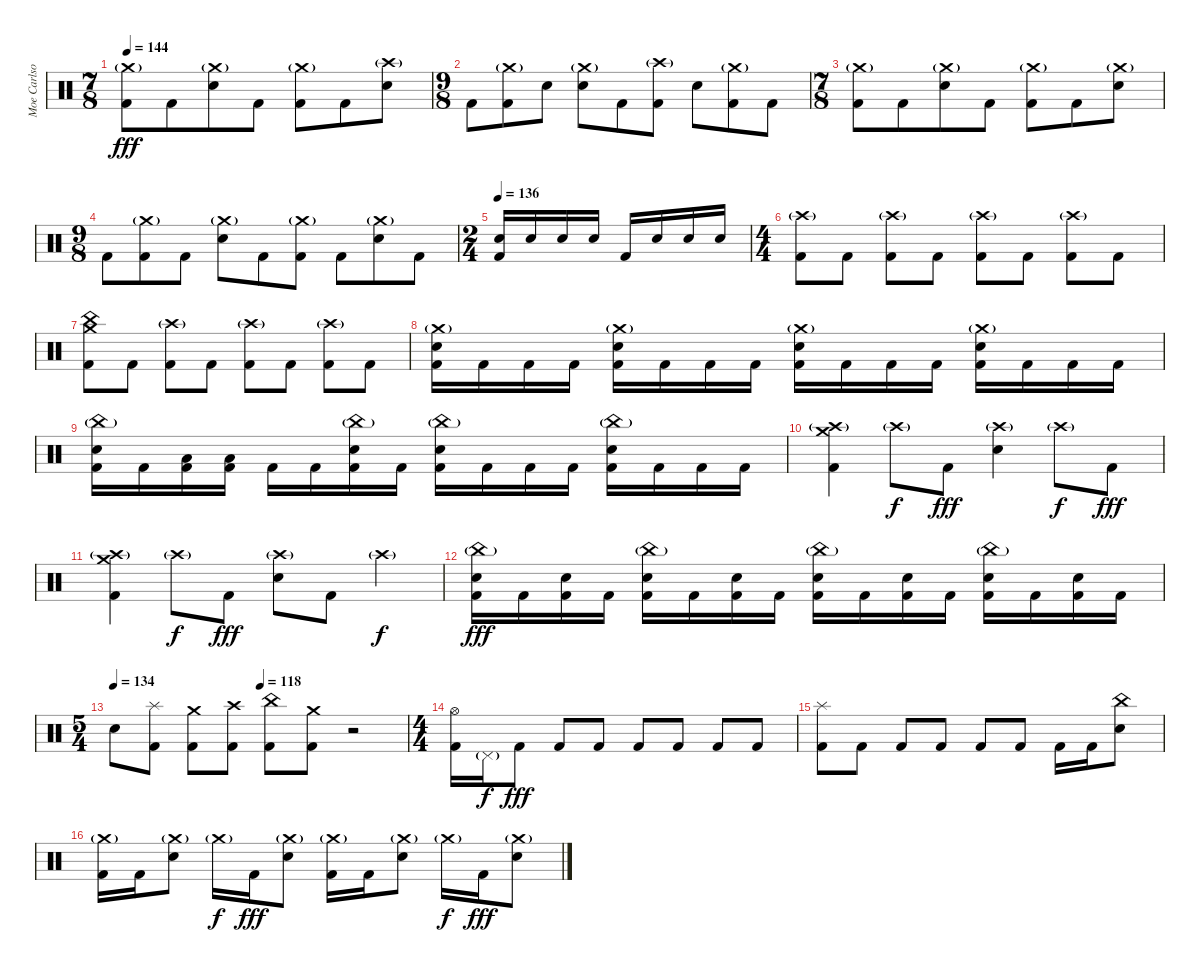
\track ("Moe Carlson" "Moe Carlso") {instrument percussion}
\staff {score}
\articulation defaults
\ts (7 8)
\tempo 144
\clef neutral
\ks c
("Crash medium (hit)"{g} "Kick (hit) 2").8{dy fff} "Kick (hit) 2".8 ("Crash medium (hit)"{g} "Electric Snare (hit)").8 "Kick (hit) 2".8 ("Crash medium (hit)"{g} "Kick (hit) 2").8 "Kick (hit) 2".8 ("Crash high (hit)"{g} "Electric Snare (hit)").8 |
\ts (9 8)
"Kick (hit) 2".8 ("Crash medium (hit)"{g} "Kick (hit) 2").8 "Electric Snare (hit)".8 ("Crash medium (hit)"{g} "Electric Snare (hit)").8 "Kick (hit) 2".8 ("Crash high (hit)"{g} "Kick (hit) 2").8 "Electric Snare (hit)".8 ("Crash medium (hit)"{g} "Kick (hit) 2").8 "Kick (hit) 2".8 |
\ts (7 8)
("Crash medium (hit)"{g} "Kick (hit) 2").8 "Kick (hit) 2".8 ("Crash medium (hit)"{g} "Electric Snare (hit)").8 "Kick (hit) 2".8 ("Crash medium (hit)"{g} "Kick (hit) 2").8 "Kick (hit) 2".8 ("Crash medium (hit)"{g} "Electric Snare (hit)").8 |
\ts (9 8)
"Kick (hit) 2".8 ("Crash medium (hit)"{g} "Kick (hit) 2").8 "Kick (hit) 2".8 ("Crash medium (hit)"{g} "Electric Snare (hit)").8 "Kick (hit) 2".8 ("Crash medium (hit)"{g} "Kick (hit) 2").8 "Kick (hit) 2".8 ("Crash medium (hit)"{g} "Electric Snare (hit)").8 "Kick (hit) 2".8 |
\ts (2 4)
\tempo 136
("Electric Snare (hit)" "Kick (hit) 2").16 "Electric Snare (hit)".16 "Electric Snare (hit)".16 "Electric Snare (hit)".16 "Kick (hit) 2".16 "Electric Snare (hit)".16 "Electric Snare (hit)".16 "Electric Snare (hit)".16 |
\ts (4 4)
("Crash high (hit)"{g} "Kick (hit) 2").8 "Kick (hit) 2".8 ("Crash high (hit)"{g} "Kick (hit) 2").8 "Kick (hit) 2".8 ("Crash high (hit)"{g} "Kick (hit) 2").8 "Kick (hit) 2".8 ("Crash high (hit)"{g} "Kick (hit) 2").8 "Kick (hit) 2".8 |
("Crash medium (hit)" "China (hit)" "Kick (hit) 2").8 "Kick (hit) 2".8 ("Crash high (hit)"{g} "Kick (hit) 2").8 "Kick (hit) 2".8 ("Crash high (hit)"{g} "Kick (hit) 2").8 "Kick (hit) 2".8 ("Crash high (hit)"{g} "Kick (hit) 2").8 "Kick (hit) 2".8 |
("Crash medium (hit)"{g} "Electric Snare (hit)" "Kick (hit) 2").16 "Kick (hit) 2".16 "Kick (hit) 2".16 "Kick (hit) 2".16 ("Crash medium (hit)"{g} "Electric Snare (hit)" "Kick (hit) 2").16 "Kick (hit) 2".16 "Kick (hit) 2".16 "Kick (hit) 2".16 ("Crash medium (hit)"{g} "Electric Snare (hit)" "Kick (hit) 2").16 "Kick (hit) 2".16 "Kick (hit) 2".16 "Kick (hit) 2".16 ("Crash medium (hit)"{g} "Electric Snare (hit)" "Kick (hit) 2").16 "Kick (hit) 2".16 "Kick (hit) 2".16 "Kick (hit) 2".16 |
("China (hit)"{g} "Electric Snare (hit)" "Kick (hit) 2").16 "Kick (hit) 2".16 ("Low Tom (hit)" "Kick (hit) 2").16 ("Low Floor Tom (hit)" "Kick (hit) 2").16 "Kick (hit) 2".16 "Kick (hit) 2".16 ("China (hit)"{g} "Electric Snare (hit)" "Kick (hit) 2").16 "Kick (hit) 2".16 ("China (hit)"{g} "Electric Snare (hit)" "Kick (hit) 2").16 "Kick (hit) 2".16 "Kick (hit) 2".16 "Kick (hit) 2".16 ("China (hit)"{g} "Electric Snare (hit)" "Kick (hit) 2").16 "Kick (hit) 2".16 "Kick (hit) 2".16 "Kick (hit) 2".16 |
("Crash high (hit)"{g} "Crash medium (hit)" "Kick (hit) 2").4 "Crash high (hit)"{g}.8{dy f} "Kick (hit) 2".8{dy fff} ("Crash high (hit)"{g} "Electric Snare (hit)").4 "Crash high (hit)"{g}.8{dy f} "Kick (hit) 2".8{dy fff} |
("Crash high (hit)"{g} "Crash medium (hit)" "Kick (hit) 2").4 "Crash high (hit)"{g}.8{dy f} "Kick (hit) 2".8{dy fff} ("Crash high (hit)"{g} "Electric Snare (hit)").8 "Kick (hit) 2".8 "Crash high (hit)"{g}.4{dy f} |
("China (hit)"{g} "Electric Snare (hit)" "Kick (hit) 2").16{dy fff} "Kick (hit) 2".16 ("Electric Snare (hit)" "Kick (hit) 2").16 "Kick (hit) 2".16 ("China (hit)"{g} "Electric Snare (hit)" "Kick (hit) 2").16 "Kick (hit) 2".16 ("Electric Snare (hit)" "Kick (hit) 2").16 "Kick (hit) 2".16 ("China (hit)"{g} "Electric Snare (hit)" "Kick (hit) 2").16 "Kick (hit) 2".16 ("Electric Snare (hit)" "Kick (hit) 2").16 "Kick (hit) 2".16 ("China (hit)"{g} "Electric Snare (hit)" "Kick (hit) 2").16 "Kick (hit) 2".16 ("Electric Snare (hit)" "Kick (hit) 2").16 "Kick (hit) 2".16 |
\ts (5 4)
\tempo 134
\tempo (118 0.5)
"Electric Snare (hit)".8 ("Splash (hit)" "Kick (hit) 2").8 ("Crash medium (hit)" "Kick (hit) 2").8 ("Crash high (hit)" "Kick (hit) 2").8 ("China (hit)" "Kick (hit) 2").8 ("Crash medium (hit)" "Kick (hit) 2").8 r.2 |
\ts (4 4)
("Hi-Hat (open)" "Kick (hit) 2").16 "Pedal Hi-Hat (hit)"{g}.16{dy f} "Kick (hit) 2".8{dy fff} "Kick (hit) 2".8 "Kick (hit) 2".8 "Kick (hit) 2".8 "Kick (hit) 2".8 "Kick (hit) 2".8 "Kick (hit) 2".8 |
("Splash (hit)" "Kick (hit) 2").8 "Kick (hit) 2".8 "Kick (hit) 2".8 "Kick (hit) 2".8 "Kick (hit) 2".8 "Kick (hit) 2".8 "Kick (hit) 2".16 "Kick (hit) 2".16 ("China (hit)" "Electric Snare (hit)").8 |
("Crash medium (hit)"{g} "Kick (hit) 2").16 "Kick (hit) 2".16 ("Crash medium (hit)"{g} "Electric Snare (hit)").8 "Crash medium (hit)"{g}.16{dy f} "Kick (hit) 2".16{dy fff} ("Crash medium (hit)"{g} "Electric Snare (hit)").8 ("Crash medium (hit)"{g} "Kick (hit) 2").16 "Kick (hit) 2".16 ("Crash medium (hit)"{g} "Electric Snare (hit)").8 "Crash medium (hit)"{g}.16{dy f} "Kick (hit) 2".16{dy fff} ("Crash medium (hit)"{g} "Electric Snare (hit)").8
